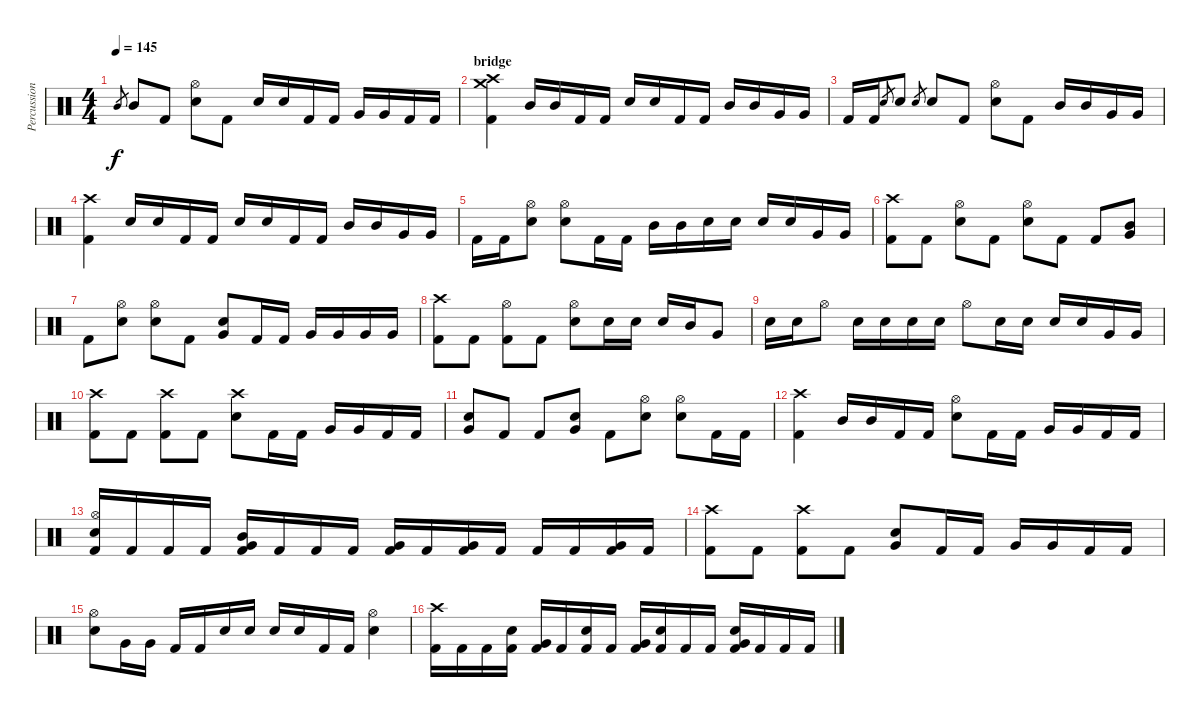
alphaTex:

\track ("Percussion" "Percussion") {instrument percussion}
\staff {score}
\articulation defaults
\ts (4 4)
\tempo 145
\clef neutral
\ks c "Mid Tom (hit)".8{gr dy f} "Mid Tom (hit)".8 "Kick (hit) 2".8
("Hi-Hat (open)" "Snare (hit) 2").8 "Kick (hit) 2".8 "Snare (hit) 2".16 "Snare (hit) 2".16 "Kick (hit) 2".16 "Kick (hit) 2".16 "Very Low Tom (hit)".16 "Very Low Tom (hit)".16 "Kick (hit) 2".16 "Kick (hit) 2".16 |
\section ("" "bridge")
("Crash high (hit)" "Crash medium (hit)" "Kick (hit) 2").4 "Mid Tom (hit)".16 "Mid Tom (hit)".16 "Kick (hit) 2".16 "Kick (hit) 2".16 "Snare (hit) 2".16 "Snare (hit) 2".16 "Kick (hit) 2".16 "Kick (hit) 2".16 "Mid Tom (hit)".16 "Mid Tom (hit)".16 "Very Low Tom (hit)".16 "Very Low Tom (hit)".16 |
"Kick (hit) 2".16 "Kick (hit) 2".16 "Snare (hit) 2".8{gr} "Snare (hit) 2".8 "Snare (hit) 2".8{gr} "Snare (hit) 2".8 "Kick (hit) 2".8 ("Hi-Hat (open)" "Snare (hit) 2").8 "Kick (hit) 2".8 "Mid Tom (hit)".16 "Mid Tom (hit)".16 "Very Low Tom (hit)".16 "Very Low Tom (hit)".16 |
("Crash high (hit)" "Kick (hit) 2").4 "Snare (hit) 2".16 "Snare (hit) 2".16 "Kick (hit) 2".16 "Kick (hit) 2".16 "Snare (hit) 2".16 "Snare (hit) 2".16 "Kick (hit) 2".16 "Kick (hit) 2".16 "Mid Tom (hit)".16 "Mid Tom (hit)".16 "Very Low Tom (hit)".16 "Very Low Tom (hit)".16 |
"Kick (hit) 2".16 "Kick (hit) 2".16 ("Hi-Hat (open)" "Snare (hit) 2").8 ("Hi-Hat (open)" "Snare (hit) 2").8 "Kick (hit) 2".16 "Kick (hit) 2".16 "Mid Tom (hit)".16 "Mid Tom (hit)".16 "Snare (hit) 2".16 "Snare (hit) 2".16 "Snare (hit) 2".16 "Snare (hit) 2".16 "Very Low Tom (hit)".16 "Very Low Tom (hit)".16 |
("Crash high (hit)" "Kick (hit) 2").8 "Kick (hit) 2".8 ("Hi-Hat (open)" "Snare (hit) 2").8 "Kick (hit) 2".8 ("Hi-Hat (open)" "Snare (hit) 2").8 "Kick (hit) 2".8 "Kick (hit) 2".8 ("Mid Tom (hit)" "Very Low Tom (hit)").8 |
"Kick (hit) 2".8 ("Hi-Hat (open)" "Snare (hit) 2").8 ("Hi-Hat (open)" "Snare (hit) 2").8 "Kick (hit) 2".8 ("Snare (hit) 2" "Very Low Tom (hit)").8 "Kick (hit) 2".16 "Kick (hit) 2".16 "Very Low Tom (hit)".16 "Very Low Tom (hit)".16 "Very Low Tom (hit)".16 "Very Low Tom (hit)".16 |
("Crash high (hit)" "Kick (hit) 2").8 "Kick (hit) 2".8 ("Hi-Hat (open)" "Kick (hit) 2").8 "Kick (hit) 2".8 ("Hi-Hat (open)" "Snare (hit) 2").8 "Snare (hit) 2".16 "Snare (hit) 2".16 "Snare (hit) 2".16 "Mid Tom (hit)".16 "Very Low Tom (hit)".8 |
"Snare (hit) 2".16 "Snare (hit) 2".16 "Hi-Hat (open)".8 "Snare (hit) 2".16 "Snare (hit) 2".16 "Snare (hit) 2".16 "Snare (hit) 2".16 "Hi-Hat (open)".8 "Snare (hit) 2".16 "Snare (hit) 2".16 "Snare (hit) 2".16 "Snare (hit) 2".16 "Very Low Tom (hit)".16 "Very Low Tom (hit)".16 |
("Crash high (hit)" "Kick (hit) 2").8 "Kick (hit) 2".8 ("Crash high (hit)" "Kick (hit) 2").8 "Kick (hit) 2".8 ("Crash high (hit)" "Snare (hit) 2").8 "Kick (hit) 2".16 "Kick (hit) 2".16 "Very Low Tom (hit)".16 "Very Low Tom (hit)".16 "Kick (hit) 2".16 "Kick (hit) 2".16 |
("Snare (hit) 2" "Very Low Tom (hit)").8 "Kick (hit) 2".8 "Kick (hit) 2".8 ("Snare (hit) 2" "Very Low Tom (hit)").8 "Kick (hit) 2".8 ("Hi-Hat (open)" "Snare (hit) 2").8 ("Hi-Hat (open)" "Snare (hit) 2").8 "Kick (hit) 2".16 "Kick (hit) 2".16 |
("Crash high (hit)" "Kick (hit) 2").4 "Mid Tom (hit)".16 "Mid Tom (hit)".16 "Kick (hit) 2".16 "Kick (hit) 2".16 ("Hi-Hat (open)" "Snare (hit) 2").8 "Kick (hit) 2".16 "Kick (hit) 2".16 "Very Low Tom (hit)".16 "Very Low Tom (hit)".16 "Kick (hit) 2".16 "Kick (hit) 2".16 |
("Hi-Hat (open)" "Snare (hit) 2" "Kick (hit) 2").16 "Kick (hit) 2".16 "Kick (hit) 2".16 "Kick (hit) 2".16 ("Mid Tom (hit)" "Very Low Tom (hit)" "Kick (hit) 2").16 "Kick (hit) 2".16 "Kick (hit) 2".16 "Kick (hit) 2".16 ("Very Low Tom (hit)" "Kick (hit) 2").16 "Kick (hit) 2".16 ("Very Low Tom (hit)" "Kick (hit) 2").16 "Kick (hit) 2".16 "Kick (hit) 2".16 "Kick (hit) 2".16 ("Very Low Tom (hit)" "Kick (hit) 2").16 "Kick (hit) 2".16 |
("Crash high (hit)" "Kick (hit) 2").8 "Kick (hit) 2".8 ("Crash high (hit)" "Kick (hit) 2").8 "Kick (hit) 2".8 ("Snare (hit) 2" "Very Low Tom (hit)").8 "Kick (hit) 2".16 "Kick (hit) 2".16 "Very Low Tom (hit)".16 "Very Low Tom (hit)".16 "Kick (hit) 2".16 "Kick (hit) 2".16 |
("Hi-Hat (open)" "Snare (hit) 2").8 "Very Low Tom (hit)".16 "Very Low Tom (hit)".16 "Kick (hit) 2".16 "Kick (hit) 2".16 "Snare (hit) 2".16 "Snare (hit) 2".16 "Snare (hit) 2".16 "Snare (hit) 2".16 "Kick (hit) 2".16 "Kick (hit) 2".16 ("Hi-Hat (open)" "Snare (hit) 2").4 |
("Crash high (hit)" "Kick (hit) 2").16 "Kick (hit) 2".16 "Kick (hit) 2".16 ("Snare (hit) 2" "Kick (hit) 2").16 ("Very Low Tom (hit)" "Kick (hit) 2").16 "Kick (hit) 2".16 ("Snare (hit) 2" "Kick (hit) 2").16 "Kick (hit) 2".16 ("Very Low Tom (hit)" "Kick (hit) 2").16 ("Snare (hit) 2" "Kick (hit) 2").16 "Kick (hit) 2".16 "Kick (hit) 2".16 ("Snare (hit) 2" "Very Low Tom (hit)" "Kick (hit) 2").16 "Kick (hit) 2".16 "Kick (hit) 2".16 "Kick (hit) 2".16
